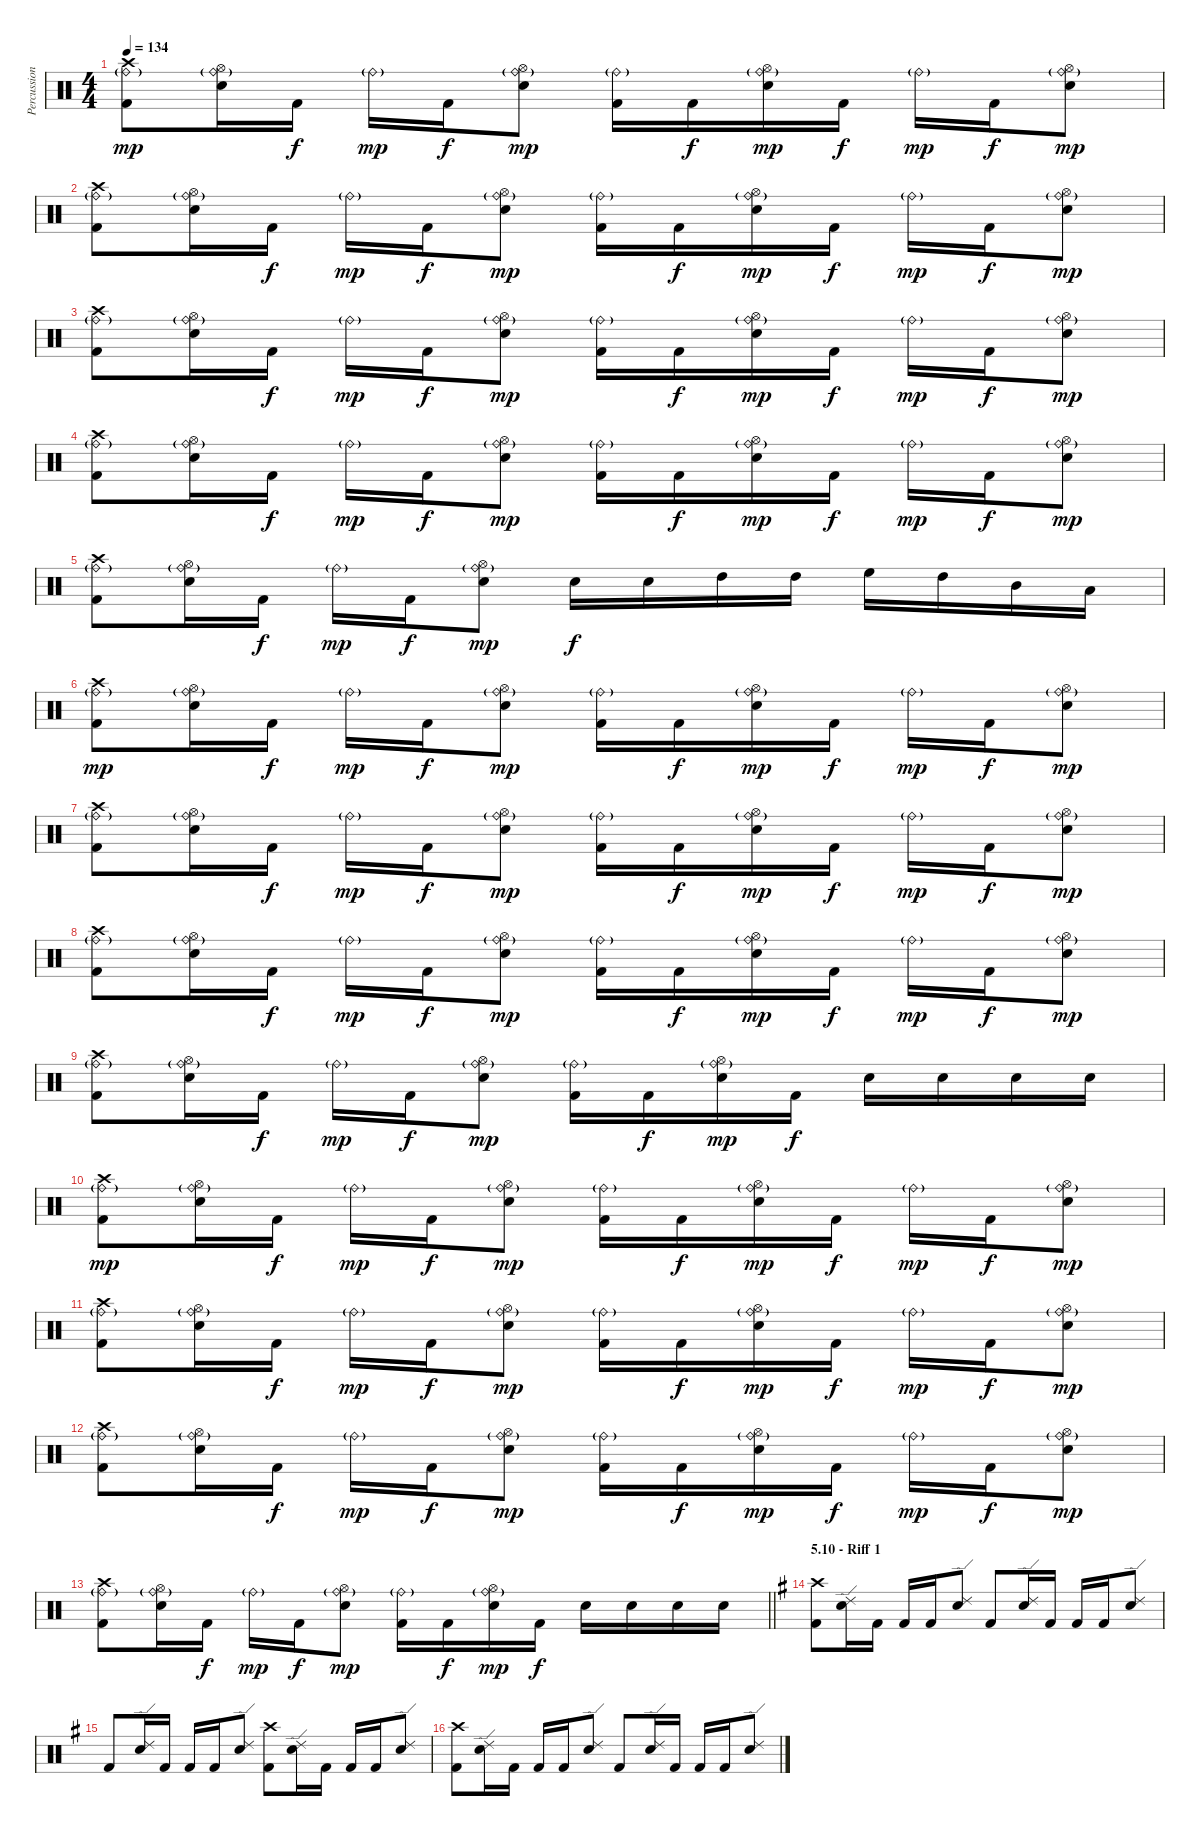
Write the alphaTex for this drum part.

\track ("Percussion" "Percussion") {instrument percussion}
\staff {score}
\articulation defaults
\ts (4 4)
\tempo 134
\clef neutral
\ks aminor
("Crash high (hit)" "Ride (bell)"{g} "Kick (hit) 2").8{dy mp} ("Hi-Hat (open)" "Ride (bell)"{g} "Electric Snare (hit)").16 "Kick (hit) 2".16{dy f} "Ride (bell)"{g}.16{dy mp} "Kick (hit) 2".16{dy f} ("Hi-Hat (open)" "Ride (bell)"{g} "Electric Snare (hit)").8{dy mp} ("Ride (bell)"{g} "Kick (hit) 2").16 "Kick (hit) 2".16{dy f} ("Hi-Hat (open)" "Ride (bell)"{g} "Electric Snare (hit)").16{dy mp} "Kick (hit) 2".16{dy f} "Ride (bell)"{g}.16{dy mp} "Kick (hit) 2".16{dy f} ("Hi-Hat (open)" "Ride (bell)"{g} "Electric Snare (hit)").8{dy mp} |
("Crash high (hit)" "Ride (bell)"{g} "Kick (hit) 2").8 ("Hi-Hat (open)" "Ride (bell)"{g} "Electric Snare (hit)").16 "Kick (hit) 2".16{dy f} "Ride (bell)"{g}.16{dy mp} "Kick (hit) 2".16{dy f} ("Hi-Hat (open)" "Ride (bell)"{g} "Electric Snare (hit)").8{dy mp} ("Ride (bell)"{g} "Kick (hit) 2").16 "Kick (hit) 2".16{dy f} ("Hi-Hat (open)" "Ride (bell)"{g} "Electric Snare (hit)").16{dy mp} "Kick (hit) 2".16{dy f} "Ride (bell)"{g}.16{dy mp} "Kick (hit) 2".16{dy f} ("Hi-Hat (open)" "Ride (bell)"{g} "Electric Snare (hit)").8{dy mp} |
("Crash high (hit)" "Ride (bell)"{g} "Kick (hit) 2").8 ("Hi-Hat (open)" "Ride (bell)"{g} "Electric Snare (hit)").16 "Kick (hit) 2".16{dy f} "Ride (bell)"{g}.16{dy mp} "Kick (hit) 2".16{dy f} ("Hi-Hat (open)" "Ride (bell)"{g} "Electric Snare (hit)").8{dy mp} ("Ride (bell)"{g} "Kick (hit) 2").16 "Kick (hit) 2".16{dy f} ("Hi-Hat (open)" "Ride (bell)"{g} "Electric Snare (hit)").16{dy mp} "Kick (hit) 2".16{dy f} "Ride (bell)"{g}.16{dy mp} "Kick (hit) 2".16{dy f} ("Hi-Hat (open)" "Ride (bell)"{g} "Electric Snare (hit)").8{dy mp} |
("Crash high (hit)" "Ride (bell)"{g} "Kick (hit) 2").8 ("Hi-Hat (open)" "Ride (bell)"{g} "Electric Snare (hit)").16 "Kick (hit) 2".16{dy f} "Ride (bell)"{g}.16{dy mp} "Kick (hit) 2".16{dy f} ("Hi-Hat (open)" "Ride (bell)"{g} "Electric Snare (hit)").8{dy mp} ("Ride (bell)"{g} "Kick (hit) 2").16 "Kick (hit) 2".16{dy f} ("Hi-Hat (open)" "Ride (bell)"{g} "Electric Snare (hit)").16{dy mp} "Kick (hit) 2".16{dy f} "Ride (bell)"{g}.16{dy mp} "Kick (hit) 2".16{dy f} ("Hi-Hat (open)" "Ride (bell)"{g} "Electric Snare (hit)").8{dy mp} |
("Crash high (hit)" "Ride (bell)"{g} "Kick (hit) 2").8 ("Hi-Hat (open)" "Ride (bell)"{g} "Electric Snare (hit)").16 "Kick (hit) 2".16{dy f} "Ride (bell)"{g}.16{dy mp} "Kick (hit) 2".16{dy f} ("Hi-Hat (open)" "Ride (bell)"{g} "Electric Snare (hit)").8{dy mp} "Electric Snare (hit)".16{dy f} "Electric Snare (hit)".16 "High Tom (hit)".16 "High Tom (hit)".16 "High Floor Tom (hit)".16 "High Tom (hit)".16 "Mid Tom (hit)".16 "Low Tom (hit)".16 |
("Crash high (hit)" "Ride (bell)"{g} "Kick (hit) 2").8{dy mp} ("Hi-Hat (open)" "Ride (bell)"{g} "Electric Snare (hit)").16 "Kick (hit) 2".16{dy f} "Ride (bell)"{g}.16{dy mp} "Kick (hit) 2".16{dy f} ("Hi-Hat (open)" "Ride (bell)"{g} "Electric Snare (hit)").8{dy mp} ("Ride (bell)"{g} "Kick (hit) 2").16 "Kick (hit) 2".16{dy f} ("Hi-Hat (open)" "Ride (bell)"{g} "Electric Snare (hit)").16{dy mp} "Kick (hit) 2".16{dy f} "Ride (bell)"{g}.16{dy mp} "Kick (hit) 2".16{dy f} ("Hi-Hat (open)" "Ride (bell)"{g} "Electric Snare (hit)").8{dy mp} |
("Crash high (hit)" "Ride (bell)"{g} "Kick (hit) 2").8 ("Hi-Hat (open)" "Ride (bell)"{g} "Electric Snare (hit)").16 "Kick (hit) 2".16{dy f} "Ride (bell)"{g}.16{dy mp} "Kick (hit) 2".16{dy f} ("Hi-Hat (open)" "Ride (bell)"{g} "Electric Snare (hit)").8{dy mp} ("Ride (bell)"{g} "Kick (hit) 2").16 "Kick (hit) 2".16{dy f} ("Hi-Hat (open)" "Ride (bell)"{g} "Electric Snare (hit)").16{dy mp} "Kick (hit) 2".16{dy f} "Ride (bell)"{g}.16{dy mp} "Kick (hit) 2".16{dy f} ("Hi-Hat (open)" "Ride (bell)"{g} "Electric Snare (hit)").8{dy mp} |
("Crash high (hit)" "Ride (bell)"{g} "Kick (hit) 2").8 ("Hi-Hat (open)" "Ride (bell)"{g} "Electric Snare (hit)").16 "Kick (hit) 2".16{dy f} "Ride (bell)"{g}.16{dy mp} "Kick (hit) 2".16{dy f} ("Hi-Hat (open)" "Ride (bell)"{g} "Electric Snare (hit)").8{dy mp} ("Ride (bell)"{g} "Kick (hit) 2").16 "Kick (hit) 2".16{dy f} ("Hi-Hat (open)" "Ride (bell)"{g} "Electric Snare (hit)").16{dy mp} "Kick (hit) 2".16{dy f} "Ride (bell)"{g}.16{dy mp} "Kick (hit) 2".16{dy f} ("Hi-Hat (open)" "Ride (bell)"{g} "Electric Snare (hit)").8{dy mp} |
("Crash high (hit)" "Ride (bell)"{g} "Kick (hit) 2").8 ("Hi-Hat (open)" "Ride (bell)"{g} "Electric Snare (hit)").16 "Kick (hit) 2".16{dy f} "Ride (bell)"{g}.16{dy mp} "Kick (hit) 2".16{dy f} ("Hi-Hat (open)" "Ride (bell)"{g} "Electric Snare (hit)").8{dy mp} ("Ride (bell)"{g} "Kick (hit) 2").16 "Kick (hit) 2".16{dy f} ("Hi-Hat (open)" "Ride (bell)"{g} "Electric Snare (hit)").16{dy mp} "Kick (hit) 2".16{dy f} "Electric Snare (hit)".16 "Electric Snare (hit)".16 "Electric Snare (hit)".16 "Electric Snare (hit)".16 |
("Crash high (hit)" "Ride (bell)"{g} "Kick (hit) 2").8{dy mp} ("Hi-Hat (open)" "Ride (bell)"{g} "Electric Snare (hit)").16 "Kick (hit) 2".16{dy f} "Ride (bell)"{g}.16{dy mp} "Kick (hit) 2".16{dy f} ("Hi-Hat (open)" "Ride (bell)"{g} "Electric Snare (hit)").8{dy mp} ("Ride (bell)"{g} "Kick (hit) 2").16 "Kick (hit) 2".16{dy f} ("Hi-Hat (open)" "Ride (bell)"{g} "Electric Snare (hit)").16{dy mp} "Kick (hit) 2".16{dy f} "Ride (bell)"{g}.16{dy mp} "Kick (hit) 2".16{dy f} ("Hi-Hat (open)" "Ride (bell)"{g} "Electric Snare (hit)").8{dy mp} |
("Crash high (hit)" "Ride (bell)"{g} "Kick (hit) 2").8 ("Hi-Hat (open)" "Ride (bell)"{g} "Electric Snare (hit)").16 "Kick (hit) 2".16{dy f} "Ride (bell)"{g}.16{dy mp} "Kick (hit) 2".16{dy f} ("Hi-Hat (open)" "Ride (bell)"{g} "Electric Snare (hit)").8{dy mp} ("Ride (bell)"{g} "Kick (hit) 2").16 "Kick (hit) 2".16{dy f} ("Hi-Hat (open)" "Ride (bell)"{g} "Electric Snare (hit)").16{dy mp} "Kick (hit) 2".16{dy f} "Ride (bell)"{g}.16{dy mp} "Kick (hit) 2".16{dy f} ("Hi-Hat (open)" "Ride (bell)"{g} "Electric Snare (hit)").8{dy mp} |
("Crash high (hit)" "Ride (bell)"{g} "Kick (hit) 2").8 ("Hi-Hat (open)" "Ride (bell)"{g} "Electric Snare (hit)").16 "Kick (hit) 2".16{dy f} "Ride (bell)"{g}.16{dy mp} "Kick (hit) 2".16{dy f} ("Hi-Hat (open)" "Ride (bell)"{g} "Electric Snare (hit)").8{dy mp} ("Ride (bell)"{g} "Kick (hit) 2").16 "Kick (hit) 2".16{dy f} ("Hi-Hat (open)" "Ride (bell)"{g} "Electric Snare (hit)").16{dy mp} "Kick (hit) 2".16{dy f} "Ride (bell)"{g}.16{dy mp} "Kick (hit) 2".16{dy f} ("Hi-Hat (open)" "Ride (bell)"{g} "Electric Snare (hit)").8{dy mp} |
\barLineRight lightlight
("Crash high (hit)" "Ride (bell)"{g} "Kick (hit) 2").8 ("Hi-Hat (open)" "Ride (bell)"{g} "Electric Snare (hit)").16 "Kick (hit) 2".16{dy f} "Ride (bell)"{g}.16{dy mp} "Kick (hit) 2".16{dy f} ("Hi-Hat (open)" "Ride (bell)"{g} "Electric Snare (hit)").8{dy mp} ("Ride (bell)"{g} "Kick (hit) 2").16 "Kick (hit) 2".16{dy f} ("Hi-Hat (open)" "Ride (bell)"{g} "Electric Snare (hit)").16{dy mp} "Kick (hit) 2".16{dy f} "Electric Snare (hit)".16 "Electric Snare (hit)".16 "Electric Snare (hit)".16 "Electric Snare (hit)".16 |
\section ("" "5.10 - Riff 1")
\ks eminor
("Crash high (hit)" "Kick (hit) 2").8 ("Ride (edge) 2" "Electric Snare (hit)").16 "Kick (hit) 2".16 "Kick (hit) 2".16 "Kick (hit) 2".16 ("Ride (edge) 2" "Electric Snare (hit)").8 "Kick (hit) 2".8 ("Ride (edge) 2" "Electric Snare (hit)").16 "Kick (hit) 2".16 "Kick (hit) 2".16 "Kick (hit) 2".16 ("Ride (edge) 2" "Electric Snare (hit)").8 |
"Kick (hit) 2".8 ("Ride (edge) 2" "Electric Snare (hit)").16 "Kick (hit) 2".16 "Kick (hit) 2".16 "Kick (hit) 2".16 ("Ride (edge) 2" "Electric Snare (hit)").8 ("Crash high (hit)" "Kick (hit) 2").8 ("Ride (edge) 2" "Electric Snare (hit)").16 "Kick (hit) 2".16 "Kick (hit) 2".16 "Kick (hit) 2".16 ("Ride (edge) 2" "Electric Snare (hit)").8 |
("Crash high (hit)" "Kick (hit) 2").8 ("Ride (edge) 2" "Electric Snare (hit)").16 "Kick (hit) 2".16 "Kick (hit) 2".16 "Kick (hit) 2".16 ("Ride (edge) 2" "Electric Snare (hit)").8 "Kick (hit) 2".8 ("Ride (edge) 2" "Electric Snare (hit)").16 "Kick (hit) 2".16 "Kick (hit) 2".16 "Kick (hit) 2".16 ("Ride (edge) 2" "Electric Snare (hit)").8
